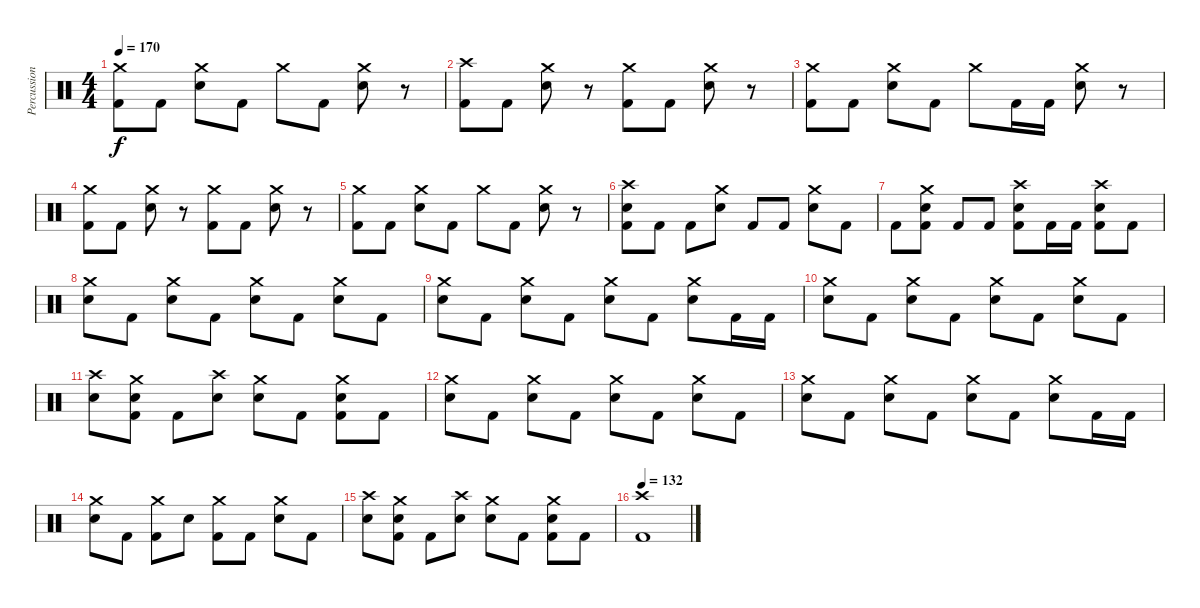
\track ("Percussion" "Percussion") {instrument percussion}
\staff {score}
\articulation defaults
\ts (4 4)
\tempo 170
\clef neutral
\ks c
("Crash medium (hit)" "Kick (hit) 2").8{dy f} "Kick (hit) 2".8 ("Crash medium (hit)" "Electric Snare (hit)").8 "Kick (hit) 2".8 "Crash medium (hit)".8 "Kick (hit) 2".8 ("Crash medium (hit)" "Electric Snare (hit)").8 r.8 |
("Crash high (hit)" "Kick (hit) 2").8 "Kick (hit) 2".8 ("Crash medium (hit)" "Electric Snare (hit)").8 r.8 ("Crash medium (hit)" "Kick (hit) 2").8 "Kick (hit) 2".8 ("Crash medium (hit)" "Electric Snare (hit)").8 r.8 |
("Crash medium (hit)" "Kick (hit) 2").8 "Kick (hit) 2".8 ("Crash medium (hit)" "Electric Snare (hit)").8 "Kick (hit) 2".8 "Crash medium (hit)".8 "Kick (hit) 2".16 "Kick (hit) 2".16 ("Crash medium (hit)" "Electric Snare (hit)").8 r.8 |
("Crash medium (hit)" "Kick (hit) 2").8 "Kick (hit) 2".8 ("Crash medium (hit)" "Electric Snare (hit)").8 r.8 ("Crash medium (hit)" "Kick (hit) 2").8 "Kick (hit) 2".8 ("Crash medium (hit)" "Electric Snare (hit)").8 r.8 |
("Crash medium (hit)" "Kick (hit) 2").8 "Kick (hit) 2".8 ("Crash medium (hit)" "Electric Snare (hit)").8 "Kick (hit) 2".8 "Crash medium (hit)".8 "Kick (hit) 2".8 ("Crash medium (hit)" "Electric Snare (hit)").8 r.8 |
("Crash high (hit)" "Electric Snare (hit)" "Kick (hit) 2").8 "Kick (hit) 2".8 "Kick (hit) 2".8 ("Crash medium (hit)" "Electric Snare (hit)").8 "Kick (hit) 2".8 "Kick (hit) 2".8 ("Crash medium (hit)" "Electric Snare (hit)").8 "Kick (hit) 2".8 |
"Kick (hit) 2".8 ("Crash medium (hit)" "Electric Snare (hit)" "Kick (hit) 2").8 "Kick (hit) 2".8 "Kick (hit) 2".8 ("Crash high (hit)" "Electric Snare (hit)" "Kick (hit) 2").8 "Kick (hit) 2".16 "Kick (hit) 2".16 ("Crash high (hit)" "Electric Snare (hit)" "Kick (hit) 2").8 "Kick (hit) 2".8 |
("Crash medium (hit)" "Electric Snare (hit)").8 "Kick (hit) 2".8 ("Crash medium (hit)" "Electric Snare (hit)").8 "Kick (hit) 2".8 ("Crash medium (hit)" "Electric Snare (hit)").8 "Kick (hit) 2".8 ("Crash medium (hit)" "Electric Snare (hit)").8 "Kick (hit) 2".8 |
("Crash medium (hit)" "Electric Snare (hit)").8 "Kick (hit) 2".8 ("Crash medium (hit)" "Electric Snare (hit)").8 "Kick (hit) 2".8 ("Crash medium (hit)" "Electric Snare (hit)").8 "Kick (hit) 2".8 ("Crash medium (hit)" "Electric Snare (hit)").8 "Kick (hit) 2".16 "Kick (hit) 2".16 |
("Crash medium (hit)" "Electric Snare (hit)").8 "Kick (hit) 2".8 ("Crash medium (hit)" "Electric Snare (hit)").8 "Kick (hit) 2".8 ("Crash medium (hit)" "Electric Snare (hit)").8 "Kick (hit) 2".8 ("Crash medium (hit)" "Electric Snare (hit)").8 "Kick (hit) 2".8 |
("Crash high (hit)" "Electric Snare (hit)").8 ("Crash medium (hit)" "Electric Snare (hit)" "Kick (hit) 2").8 "Kick (hit) 2".8 ("Crash high (hit)" "Electric Snare (hit)").8 ("Crash medium (hit)" "Electric Snare (hit)").8 "Kick (hit) 2".8 ("Crash medium (hit)" "Electric Snare (hit)" "Kick (hit) 2").8 "Kick (hit) 2".8 |
("Crash medium (hit)" "Electric Snare (hit)").8 "Kick (hit) 2".8 ("Crash medium (hit)" "Electric Snare (hit)").8 "Kick (hit) 2".8 ("Crash medium (hit)" "Electric Snare (hit)").8 "Kick (hit) 2".8 ("Crash medium (hit)" "Electric Snare (hit)").8 "Kick (hit) 2".8 |
("Crash medium (hit)" "Electric Snare (hit)").8 "Kick (hit) 2".8 ("Crash medium (hit)" "Electric Snare (hit)").8 "Kick (hit) 2".8 ("Crash medium (hit)" "Electric Snare (hit)").8 "Kick (hit) 2".8 ("Crash medium (hit)" "Electric Snare (hit)").8 "Kick (hit) 2".16 "Kick (hit) 2".16 |
("Crash medium (hit)" "Electric Snare (hit)").8 "Kick (hit) 2".8 ("Crash medium (hit)" "Kick (hit) 2").8 "Electric Snare (hit)".8 ("Crash medium (hit)" "Kick (hit) 2").8 "Kick (hit) 2".8 ("Crash medium (hit)" "Electric Snare (hit)").8 "Kick (hit) 2".8 |
("Crash high (hit)" "Electric Snare (hit)").8 ("Crash medium (hit)" "Electric Snare (hit)" "Kick (hit) 2").8 "Kick (hit) 2".8 ("Crash high (hit)" "Electric Snare (hit)").8 ("Crash medium (hit)" "Electric Snare (hit)").8 "Kick (hit) 2".8 ("Crash medium (hit)" "Electric Snare (hit)" "Kick (hit) 2").8 "Kick (hit) 2".8 |
\tempo 132
("Crash high (hit)" "Kick (hit) 2").1
